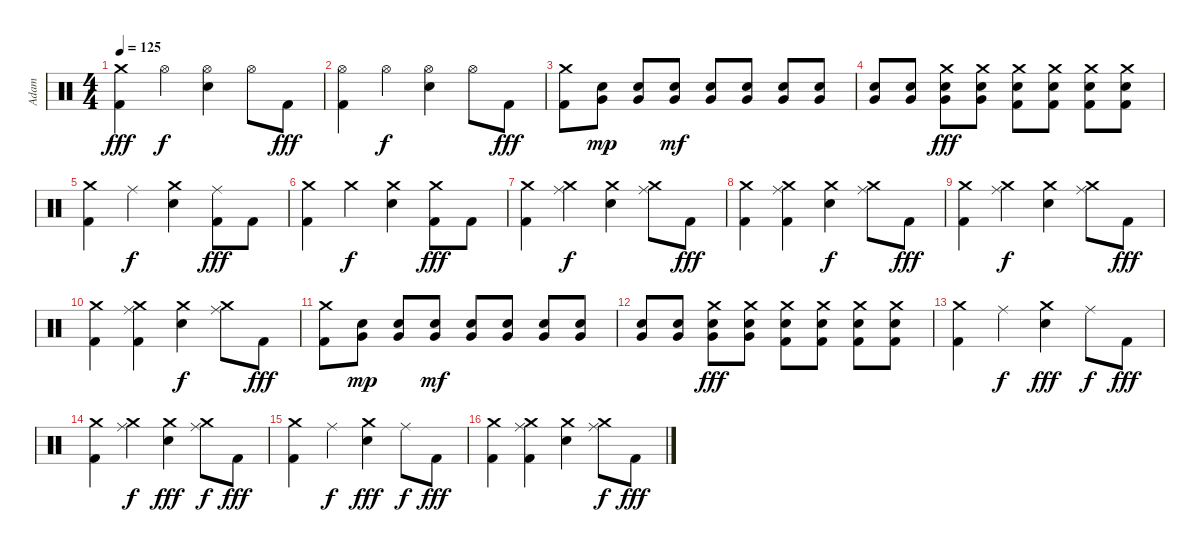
\track ("Adam" "Adam") {instrument percussion}
\staff {score}
\articulation defaults
\ts (4 4)
\tempo 125
\clef neutral
\ks c
("Crash medium (hit)" "Kick (hit) 2").4{dy fff} "Hi-Hat (open)".4{dy f} ("Hi-Hat (open)" "Electric Snare (hit)").4 "Hi-Hat (open)".8 "Kick (hit) 2".8{dy fff} |
("Hi-Hat (open)" "Kick (hit) 2").4 "Hi-Hat (open)".4{dy f} ("Hi-Hat (open)" "Electric Snare (hit)").4 "Hi-Hat (open)".8 "Kick (hit) 2".8{dy fff} |
("Crash medium (hit)" "Kick (hit) 2").8 ("Very Low Tom (hit)" "Electric Snare (hit)").8{dy mp} ("Very Low Tom (hit)" "Electric Snare (hit)").8 ("Very Low Tom (hit)" "Electric Snare (hit)").8{dy mf} ("Very Low Tom (hit)" "Electric Snare (hit)").8 ("Very Low Tom (hit)" "Electric Snare (hit)").8 ("Very Low Tom (hit)" "Electric Snare (hit)").8 ("Very Low Tom (hit)" "Electric Snare (hit)").8 |
("Very Low Tom (hit)" "Electric Snare (hit)").8 ("Very Low Tom (hit)" "Electric Snare (hit)").8 ("Crash medium (hit)" "Very Low Tom (hit)" "Electric Snare (hit)").8{dy fff} ("Crash medium (hit)" "Very Low Tom (hit)" "Electric Snare (hit)").8 ("Crash medium (hit)" "Electric Snare (hit)" "Kick (hit) 2").8 ("Crash medium (hit)" "Electric Snare (hit)" "Kick (hit) 2").8 ("Crash medium (hit)" "Electric Snare (hit)" "Kick (hit) 2").8 ("Crash medium (hit)" "Electric Snare (hit)" "Kick (hit) 2").8 |
("Crash medium (hit)" "Kick (hit) 2").4 "Ride (middle)".4{dy f} ("Crash medium (hit)" "Electric Snare (hit)").4 ("Ride (middle)" "Kick (hit) 2").8{dy fff} "Kick (hit) 2".8 |
("Crash medium (hit)" "Kick (hit) 2").4 "Crash medium (hit)".4{dy f} ("Crash medium (hit)" "Electric Snare (hit)").4 ("Crash medium (hit)" "Kick (hit) 2").8{dy fff} "Kick (hit) 2".8 |
("Crash medium (hit)" "Kick (hit) 2").4 ("Crash medium (hit)" "Ride (middle)").4{dy f} ("Crash medium (hit)" "Electric Snare (hit)").4 ("Crash medium (hit)" "Ride (middle)").8 "Kick (hit) 2".8{dy fff} |
("Crash medium (hit)" "Kick (hit) 2").4 ("Crash medium (hit)" "Ride (middle)" "Kick (hit) 2").4 ("Crash medium (hit)" "Electric Snare (hit)").4{dy f} ("Crash medium (hit)" "Ride (middle)").8 "Kick (hit) 2".8{dy fff} |
("Crash medium (hit)" "Kick (hit) 2").4 ("Crash medium (hit)" "Ride (middle)").4{dy f} ("Crash medium (hit)" "Electric Snare (hit)").4 ("Crash medium (hit)" "Ride (middle)").8 "Kick (hit) 2".8{dy fff} |
("Crash medium (hit)" "Kick (hit) 2").4 ("Crash medium (hit)" "Ride (middle)" "Kick (hit) 2").4 ("Crash medium (hit)" "Electric Snare (hit)").4{dy f} ("Crash medium (hit)" "Ride (middle)").8 "Kick (hit) 2".8{dy fff} |
("Crash medium (hit)" "Kick (hit) 2").8 ("Very Low Tom (hit)" "Electric Snare (hit)").8{dy mp} ("Very Low Tom (hit)" "Electric Snare (hit)").8 ("Very Low Tom (hit)" "Electric Snare (hit)").8{dy mf} ("Very Low Tom (hit)" "Electric Snare (hit)").8 ("Very Low Tom (hit)" "Electric Snare (hit)").8 ("Very Low Tom (hit)" "Electric Snare (hit)").8 ("Very Low Tom (hit)" "Electric Snare (hit)").8 |
("Very Low Tom (hit)" "Electric Snare (hit)").8 ("Very Low Tom (hit)" "Electric Snare (hit)").8 ("Crash medium (hit)" "Very Low Tom (hit)" "Electric Snare (hit)").8{dy fff} ("Crash medium (hit)" "Very Low Tom (hit)" "Electric Snare (hit)").8 ("Crash medium (hit)" "Electric Snare (hit)" "Kick (hit) 2").8 ("Crash medium (hit)" "Electric Snare (hit)" "Kick (hit) 2").8 ("Crash medium (hit)" "Electric Snare (hit)" "Kick (hit) 2").8 ("Crash medium (hit)" "Electric Snare (hit)" "Kick (hit) 2").8 |
("Crash medium (hit)" "Kick (hit) 2").4 "Ride (middle)".4{dy f} ("Crash medium (hit)" "Electric Snare (hit)").4{dy fff} "Ride (middle)".8{dy f} "Kick (hit) 2".8{dy fff} |
("Crash medium (hit)" "Kick (hit) 2").4 ("Crash medium (hit)" "Ride (middle)").4{dy f} ("Crash medium (hit)" "Electric Snare (hit)").4{dy fff} ("Crash medium (hit)" "Ride (middle)").8{dy f} "Kick (hit) 2".8{dy fff} |
("Crash medium (hit)" "Kick (hit) 2").4 "Ride (middle)".4{dy f} ("Crash medium (hit)" "Electric Snare (hit)").4{dy fff} "Ride (middle)".8{dy f} "Kick (hit) 2".8{dy fff} |
("Crash medium (hit)" "Kick (hit) 2").4 ("Crash medium (hit)" "Ride (middle)" "Kick (hit) 2").4 ("Crash medium (hit)" "Electric Snare (hit)").4 ("Crash medium (hit)" "Ride (middle)").8{dy f} "Kick (hit) 2".8{dy fff}
